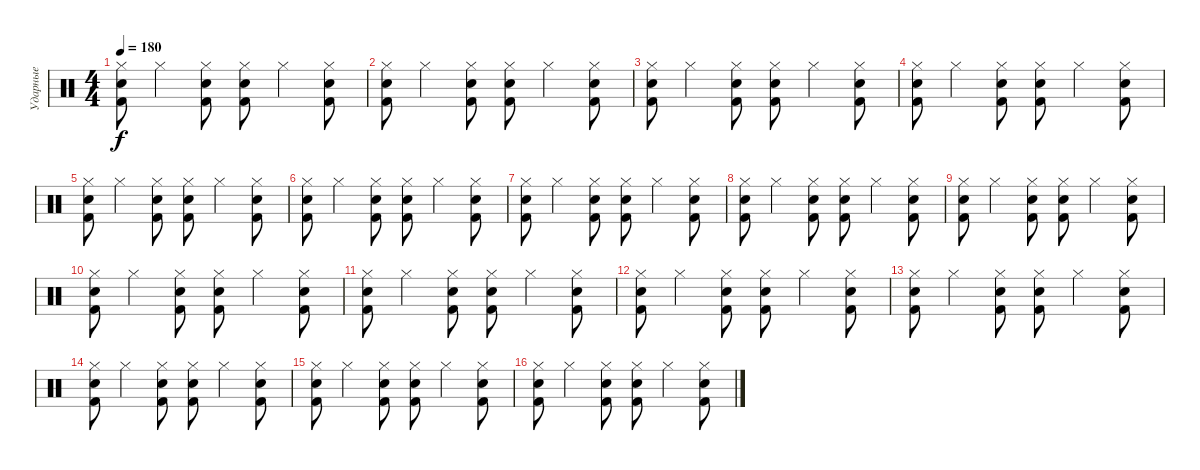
\track ("Ударные" "Ударные") {instrument percussion}
\staff {score}
\articulation defaults
\ts (4 4)
\tempo 180
\clef neutral
\ks c
("Hi-Hat (closed)" "Electric Snare (hit)" "Kick (hit) 2").8{dy f} "Hi-Hat (closed)".4 ("Hi-Hat (closed)" "Electric Snare (hit)" "Kick (hit) 2").8 ("Hi-Hat (closed)" "Electric Snare (hit)" "Kick (hit) 2").8 "Hi-Hat (closed)".4 ("Hi-Hat (closed)" "Electric Snare (hit)" "Kick (hit) 2").8 |
("Hi-Hat (closed)" "Electric Snare (hit)" "Kick (hit) 2").8 "Hi-Hat (closed)".4 ("Hi-Hat (closed)" "Electric Snare (hit)" "Kick (hit) 2").8 ("Hi-Hat (closed)" "Electric Snare (hit)" "Kick (hit) 2").8 "Hi-Hat (closed)".4 ("Hi-Hat (closed)" "Electric Snare (hit)" "Kick (hit) 2").8 |
("Hi-Hat (closed)" "Electric Snare (hit)" "Kick (hit) 2").8 "Hi-Hat (closed)".4 ("Hi-Hat (closed)" "Electric Snare (hit)" "Kick (hit) 2").8 ("Hi-Hat (closed)" "Electric Snare (hit)" "Kick (hit) 2").8 "Hi-Hat (closed)".4 ("Hi-Hat (closed)" "Electric Snare (hit)" "Kick (hit) 2").8 |
("Hi-Hat (closed)" "Electric Snare (hit)" "Kick (hit) 2").8 "Hi-Hat (closed)".4 ("Hi-Hat (closed)" "Electric Snare (hit)" "Kick (hit) 2").8 ("Hi-Hat (closed)" "Electric Snare (hit)" "Kick (hit) 2").8 "Hi-Hat (closed)".4 ("Hi-Hat (closed)" "Electric Snare (hit)" "Kick (hit) 2").8 |
("Hi-Hat (closed)" "Electric Snare (hit)" "Kick (hit) 2").8 "Hi-Hat (closed)".4 ("Hi-Hat (closed)" "Electric Snare (hit)" "Kick (hit) 2").8 ("Hi-Hat (closed)" "Electric Snare (hit)" "Kick (hit) 2").8 "Hi-Hat (closed)".4 ("Hi-Hat (closed)" "Electric Snare (hit)" "Kick (hit) 2").8 |
("Hi-Hat (closed)" "Electric Snare (hit)" "Kick (hit) 2").8 "Hi-Hat (closed)".4 ("Hi-Hat (closed)" "Electric Snare (hit)" "Kick (hit) 2").8 ("Hi-Hat (closed)" "Electric Snare (hit)" "Kick (hit) 2").8 "Hi-Hat (closed)".4 ("Hi-Hat (closed)" "Electric Snare (hit)" "Kick (hit) 2").8 |
("Hi-Hat (closed)" "Electric Snare (hit)" "Kick (hit) 2").8 "Hi-Hat (closed)".4 ("Hi-Hat (closed)" "Electric Snare (hit)" "Kick (hit) 2").8 ("Hi-Hat (closed)" "Electric Snare (hit)" "Kick (hit) 2").8 "Hi-Hat (closed)".4 ("Hi-Hat (closed)" "Electric Snare (hit)" "Kick (hit) 2").8 |
("Hi-Hat (closed)" "Electric Snare (hit)" "Kick (hit) 2").8 "Hi-Hat (closed)".4 ("Hi-Hat (closed)" "Electric Snare (hit)" "Kick (hit) 2").8 ("Hi-Hat (closed)" "Electric Snare (hit)" "Kick (hit) 2").8 "Hi-Hat (closed)".4 ("Hi-Hat (closed)" "Electric Snare (hit)" "Kick (hit) 2").8 |
("Hi-Hat (closed)" "Electric Snare (hit)" "Kick (hit) 2").8 "Hi-Hat (closed)".4 ("Hi-Hat (closed)" "Electric Snare (hit)" "Kick (hit) 2").8 ("Hi-Hat (closed)" "Electric Snare (hit)" "Kick (hit) 2").8 "Hi-Hat (closed)".4 ("Hi-Hat (closed)" "Electric Snare (hit)" "Kick (hit) 2").8 |
("Hi-Hat (closed)" "Electric Snare (hit)" "Kick (hit) 2").8 "Hi-Hat (closed)".4 ("Hi-Hat (closed)" "Electric Snare (hit)" "Kick (hit) 2").8 ("Hi-Hat (closed)" "Electric Snare (hit)" "Kick (hit) 2").8 "Hi-Hat (closed)".4 ("Hi-Hat (closed)" "Electric Snare (hit)" "Kick (hit) 2").8 |
("Hi-Hat (closed)" "Electric Snare (hit)" "Kick (hit) 2").8 "Hi-Hat (closed)".4 ("Hi-Hat (closed)" "Electric Snare (hit)" "Kick (hit) 2").8 ("Hi-Hat (closed)" "Electric Snare (hit)" "Kick (hit) 2").8 "Hi-Hat (closed)".4 ("Hi-Hat (closed)" "Electric Snare (hit)" "Kick (hit) 2").8 |
("Hi-Hat (closed)" "Electric Snare (hit)" "Kick (hit) 2").8 "Hi-Hat (closed)".4 ("Hi-Hat (closed)" "Electric Snare (hit)" "Kick (hit) 2").8 ("Hi-Hat (closed)" "Electric Snare (hit)" "Kick (hit) 2").8 "Hi-Hat (closed)".4 ("Hi-Hat (closed)" "Electric Snare (hit)" "Kick (hit) 2").8 |
("Hi-Hat (closed)" "Electric Snare (hit)" "Kick (hit) 2").8 "Hi-Hat (closed)".4 ("Hi-Hat (closed)" "Electric Snare (hit)" "Kick (hit) 2").8 ("Hi-Hat (closed)" "Electric Snare (hit)" "Kick (hit) 2").8 "Hi-Hat (closed)".4 ("Hi-Hat (closed)" "Electric Snare (hit)" "Kick (hit) 2").8 |
("Hi-Hat (closed)" "Electric Snare (hit)" "Kick (hit) 2").8 "Hi-Hat (closed)".4 ("Hi-Hat (closed)" "Electric Snare (hit)" "Kick (hit) 2").8 ("Hi-Hat (closed)" "Electric Snare (hit)" "Kick (hit) 2").8 "Hi-Hat (closed)".4 ("Hi-Hat (closed)" "Electric Snare (hit)" "Kick (hit) 2").8 |
("Hi-Hat (closed)" "Electric Snare (hit)" "Kick (hit) 2").8 "Hi-Hat (closed)".4 ("Hi-Hat (closed)" "Electric Snare (hit)" "Kick (hit) 2").8 ("Hi-Hat (closed)" "Electric Snare (hit)" "Kick (hit) 2").8 "Hi-Hat (closed)".4 ("Hi-Hat (closed)" "Electric Snare (hit)" "Kick (hit) 2").8 |
("Hi-Hat (closed)" "Electric Snare (hit)" "Kick (hit) 2").8 "Hi-Hat (closed)".4 ("Hi-Hat (closed)" "Electric Snare (hit)" "Kick (hit) 2").8 ("Hi-Hat (closed)" "Electric Snare (hit)" "Kick (hit) 2").8 "Hi-Hat (closed)".4 ("Hi-Hat (closed)" "Electric Snare (hit)" "Kick (hit) 2").8
